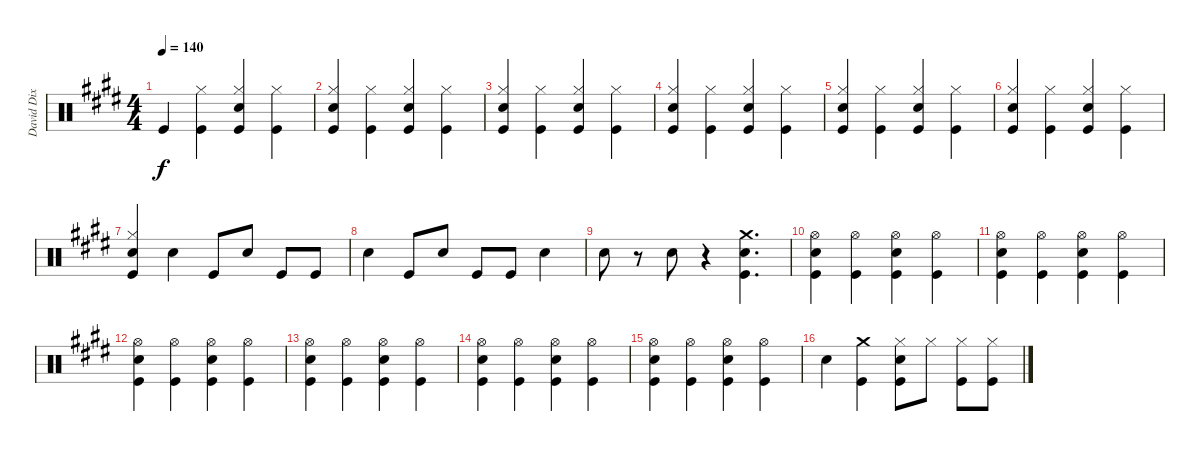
\track ("David Dix Drums" "David Dix ") {instrument percussion}
\staff {score}
\articulation defaults
\ts (4 4)
\tempo 140
\clef neutral
\ks e "Kick (hit)".4{dy f}
("Hi-Hat (closed)" "Kick (hit)").4 ("Hi-Hat (closed)" "Snare (hit) 2" "Kick (hit)").4 ("Hi-Hat (closed)" "Kick (hit)").4 |
("Hi-Hat (closed)" "Snare (hit) 2" "Kick (hit)").4 ("Hi-Hat (closed)" "Kick (hit)").4 ("Hi-Hat (closed)" "Snare (hit) 2" "Kick (hit)").4 ("Hi-Hat (closed)" "Kick (hit)").4 |
("Hi-Hat (closed)" "Snare (hit) 2" "Kick (hit)").4 ("Hi-Hat (closed)" "Kick (hit)").4 ("Hi-Hat (closed)" "Snare (hit) 2" "Kick (hit)").4 ("Hi-Hat (closed)" "Kick (hit)").4 |
("Hi-Hat (closed)" "Snare (hit) 2" "Kick (hit)").4 ("Hi-Hat (closed)" "Kick (hit)").4 ("Hi-Hat (closed)" "Snare (hit) 2" "Kick (hit)").4 ("Hi-Hat (closed)" "Kick (hit)").4 |
("Hi-Hat (closed)" "Snare (hit) 2" "Kick (hit)").4 ("Hi-Hat (closed)" "Kick (hit)").4 ("Hi-Hat (closed)" "Snare (hit) 2" "Kick (hit)").4 ("Hi-Hat (closed)" "Kick (hit)").4 |
("Hi-Hat (closed)" "Snare (hit) 2" "Kick (hit)").4 ("Hi-Hat (closed)" "Kick (hit)").4 ("Hi-Hat (closed)" "Snare (hit) 2" "Kick (hit)").4 ("Hi-Hat (closed)" "Kick (hit)").4 |
("Hi-Hat (closed)" "Snare (hit) 2" "Kick (hit)").4 "Snare (hit) 2".4 "Kick (hit)".8 "Snare (hit) 2".8 "Kick (hit)".8 "Kick (hit)".8 |
"Snare (hit) 2".4 "Kick (hit)".8 "Snare (hit) 2".8 "Kick (hit)".8 "Kick (hit)".8 "Snare (hit) 2".4 |
"Snare (hit) 2".8 r.8 "Snare (hit) 2".8 r.4 ("Crash medium (hit)" "Snare (hit) 2" "Kick (hit)").4{d} |
("Hi-Hat (open)" "Snare (hit) 2" "Kick (hit)").4 ("Hi-Hat (open)" "Kick (hit)").4 ("Hi-Hat (open)" "Snare (hit) 2" "Kick (hit)").4 ("Hi-Hat (open)" "Kick (hit)").4 |
("Hi-Hat (open)" "Snare (hit) 2" "Kick (hit)").4 ("Hi-Hat (open)" "Kick (hit)").4 ("Hi-Hat (open)" "Snare (hit) 2" "Kick (hit)").4 ("Hi-Hat (open)" "Kick (hit)").4 |
("Hi-Hat (open)" "Snare (hit) 2" "Kick (hit)").4 ("Hi-Hat (open)" "Kick (hit)").4 ("Hi-Hat (open)" "Snare (hit) 2" "Kick (hit)").4 ("Hi-Hat (open)" "Kick (hit)").4 |
("Hi-Hat (open)" "Snare (hit) 2" "Kick (hit)").4 ("Hi-Hat (open)" "Kick (hit)").4 ("Hi-Hat (open)" "Snare (hit) 2" "Kick (hit)").4 ("Hi-Hat (open)" "Kick (hit)").4 |
("Hi-Hat (open)" "Snare (hit) 2" "Kick (hit)").4 ("Hi-Hat (open)" "Kick (hit)").4 ("Hi-Hat (open)" "Snare (hit) 2" "Kick (hit)").4 ("Hi-Hat (open)" "Kick (hit)").4 |
("Hi-Hat (open)" "Snare (hit) 2" "Kick (hit)").4 ("Hi-Hat (open)" "Kick (hit)").4 ("Hi-Hat (open)" "Snare (hit) 2" "Kick (hit)").4 ("Hi-Hat (open)" "Kick (hit)").4 |
"Snare (hit) 2".4 ("Crash medium (hit)" "Kick (hit)").4 ("Hi-Hat (closed)" "Snare (hit) 2" "Kick (hit)").8 "Hi-Hat (closed)".8 ("Hi-Hat (closed)" "Kick (hit)").8 ("Hi-Hat (closed)" "Kick (hit)").8
